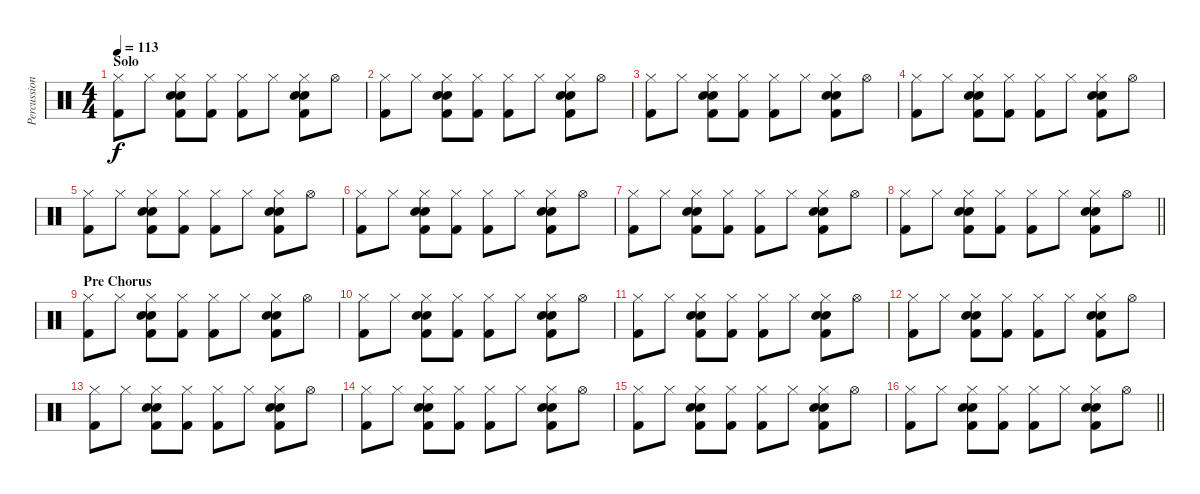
\track ("Percussion" "Percussion") {instrument percussion}
\staff {score}
\articulation defaults
\ts (4 4)
\section ("" "Solo")
\tempo 113
\clef neutral
\ks c
("Hi-Hat (closed)" "Kick (hit) 2").8{dy f} "Hi-Hat (closed)".8 ("Hand Clap (hit)" "Hi-Hat (closed)" "Electric Snare (hit)" "Kick (hit) 2").8 ("Hi-Hat (closed)" "Kick (hit) 2").8 ("Hi-Hat (closed)" "Kick (hit) 2").8 "Hi-Hat (closed)".8 ("Hand Clap (hit)" "Hi-Hat (closed)" "Electric Snare (hit)" "Kick (hit) 2").8 "Hi-Hat (open)".8 |
("Hi-Hat (closed)" "Kick (hit) 2").8 "Hi-Hat (closed)".8 ("Hand Clap (hit)" "Hi-Hat (closed)" "Electric Snare (hit)" "Kick (hit) 2").8 ("Hi-Hat (closed)" "Kick (hit) 2").8 ("Hi-Hat (closed)" "Kick (hit) 2").8 "Hi-Hat (closed)".8 ("Hand Clap (hit)" "Hi-Hat (closed)" "Electric Snare (hit)" "Kick (hit) 2").8 "Hi-Hat (open)".8 |
("Hi-Hat (closed)" "Kick (hit) 2").8 "Hi-Hat (closed)".8 ("Hand Clap (hit)" "Hi-Hat (closed)" "Electric Snare (hit)" "Kick (hit) 2").8 ("Hi-Hat (closed)" "Kick (hit) 2").8 ("Hi-Hat (closed)" "Kick (hit) 2").8 "Hi-Hat (closed)".8 ("Hand Clap (hit)" "Hi-Hat (closed)" "Electric Snare (hit)" "Kick (hit) 2").8 "Hi-Hat (open)".8 |
("Hi-Hat (closed)" "Kick (hit) 2").8 "Hi-Hat (closed)".8 ("Hand Clap (hit)" "Hi-Hat (closed)" "Electric Snare (hit)" "Kick (hit) 2").8 ("Hi-Hat (closed)" "Kick (hit) 2").8 ("Hi-Hat (closed)" "Kick (hit) 2").8 "Hi-Hat (closed)".8 ("Hand Clap (hit)" "Hi-Hat (closed)" "Electric Snare (hit)" "Kick (hit) 2").8 "Hi-Hat (open)".8 |
("Hi-Hat (closed)" "Kick (hit) 2").8 "Hi-Hat (closed)".8 ("Hand Clap (hit)" "Hi-Hat (closed)" "Electric Snare (hit)" "Kick (hit) 2").8 ("Hi-Hat (closed)" "Kick (hit) 2").8 ("Hi-Hat (closed)" "Kick (hit) 2").8 "Hi-Hat (closed)".8 ("Hand Clap (hit)" "Hi-Hat (closed)" "Electric Snare (hit)" "Kick (hit) 2").8 "Hi-Hat (open)".8 |
("Hi-Hat (closed)" "Kick (hit) 2").8 "Hi-Hat (closed)".8 ("Hand Clap (hit)" "Hi-Hat (closed)" "Electric Snare (hit)" "Kick (hit) 2").8 ("Hi-Hat (closed)" "Kick (hit) 2").8 ("Hi-Hat (closed)" "Kick (hit) 2").8 "Hi-Hat (closed)".8 ("Hand Clap (hit)" "Hi-Hat (closed)" "Electric Snare (hit)" "Kick (hit) 2").8 "Hi-Hat (open)".8 |
("Hi-Hat (closed)" "Kick (hit) 2").8 "Hi-Hat (closed)".8 ("Hand Clap (hit)" "Hi-Hat (closed)" "Electric Snare (hit)" "Kick (hit) 2").8 ("Hi-Hat (closed)" "Kick (hit) 2").8 ("Hi-Hat (closed)" "Kick (hit) 2").8 "Hi-Hat (closed)".8 ("Hand Clap (hit)" "Hi-Hat (closed)" "Electric Snare (hit)" "Kick (hit) 2").8 "Hi-Hat (open)".8 |
\barLineRight lightlight
("Hi-Hat (closed)" "Kick (hit) 2").8 "Hi-Hat (closed)".8 ("Hand Clap (hit)" "Hi-Hat (closed)" "Electric Snare (hit)" "Kick (hit) 2").8 ("Hi-Hat (closed)" "Kick (hit) 2").8 ("Hi-Hat (closed)" "Kick (hit) 2").8 "Hi-Hat (closed)".8 ("Hand Clap (hit)" "Hi-Hat (closed)" "Electric Snare (hit)" "Kick (hit) 2").8 "Hi-Hat (open)".8 |
\section ("" "Pre Chorus")
("Hi-Hat (closed)" "Kick (hit) 2").8 "Hi-Hat (closed)".8 ("Hand Clap (hit)" "Hi-Hat (closed)" "Electric Snare (hit)" "Kick (hit) 2").8 ("Hi-Hat (closed)" "Kick (hit) 2").8 ("Hi-Hat (closed)" "Kick (hit) 2").8 "Hi-Hat (closed)".8 ("Hand Clap (hit)" "Hi-Hat (closed)" "Electric Snare (hit)" "Kick (hit) 2").8 "Hi-Hat (open)".8 |
("Hi-Hat (closed)" "Kick (hit) 2").8 "Hi-Hat (closed)".8 ("Hand Clap (hit)" "Hi-Hat (closed)" "Electric Snare (hit)" "Kick (hit) 2").8 ("Hi-Hat (closed)" "Kick (hit) 2").8 ("Hi-Hat (closed)" "Kick (hit) 2").8 "Hi-Hat (closed)".8 ("Hand Clap (hit)" "Hi-Hat (closed)" "Electric Snare (hit)" "Kick (hit) 2").8 "Hi-Hat (open)".8 |
("Hi-Hat (closed)" "Kick (hit) 2").8 "Hi-Hat (closed)".8 ("Hand Clap (hit)" "Hi-Hat (closed)" "Electric Snare (hit)" "Kick (hit) 2").8 ("Hi-Hat (closed)" "Kick (hit) 2").8 ("Hi-Hat (closed)" "Kick (hit) 2").8 "Hi-Hat (closed)".8 ("Hand Clap (hit)" "Hi-Hat (closed)" "Electric Snare (hit)" "Kick (hit) 2").8 "Hi-Hat (open)".8 |
("Hi-Hat (closed)" "Kick (hit) 2").8 "Hi-Hat (closed)".8 ("Hand Clap (hit)" "Hi-Hat (closed)" "Electric Snare (hit)" "Kick (hit) 2").8 ("Hi-Hat (closed)" "Kick (hit) 2").8 ("Hi-Hat (closed)" "Kick (hit) 2").8 "Hi-Hat (closed)".8 ("Hand Clap (hit)" "Hi-Hat (closed)" "Electric Snare (hit)" "Kick (hit) 2").8 "Hi-Hat (open)".8 |
("Hi-Hat (closed)" "Kick (hit) 2").8 "Hi-Hat (closed)".8 ("Hand Clap (hit)" "Hi-Hat (closed)" "Electric Snare (hit)" "Kick (hit) 2").8 ("Hi-Hat (closed)" "Kick (hit) 2").8 ("Hi-Hat (closed)" "Kick (hit) 2").8 "Hi-Hat (closed)".8 ("Hand Clap (hit)" "Hi-Hat (closed)" "Electric Snare (hit)" "Kick (hit) 2").8 "Hi-Hat (open)".8 |
("Hi-Hat (closed)" "Kick (hit) 2").8 "Hi-Hat (closed)".8 ("Hand Clap (hit)" "Hi-Hat (closed)" "Electric Snare (hit)" "Kick (hit) 2").8 ("Hi-Hat (closed)" "Kick (hit) 2").8 ("Hi-Hat (closed)" "Kick (hit) 2").8 "Hi-Hat (closed)".8 ("Hand Clap (hit)" "Hi-Hat (closed)" "Electric Snare (hit)" "Kick (hit) 2").8 "Hi-Hat (open)".8 |
("Hi-Hat (closed)" "Kick (hit) 2").8 "Hi-Hat (closed)".8 ("Hand Clap (hit)" "Hi-Hat (closed)" "Electric Snare (hit)" "Kick (hit) 2").8 ("Hi-Hat (closed)" "Kick (hit) 2").8 ("Hi-Hat (closed)" "Kick (hit) 2").8 "Hi-Hat (closed)".8 ("Hand Clap (hit)" "Hi-Hat (closed)" "Electric Snare (hit)" "Kick (hit) 2").8 "Hi-Hat (open)".8 |
\barLineRight lightlight
("Hi-Hat (closed)" "Kick (hit) 2").8 "Hi-Hat (closed)".8 ("Hand Clap (hit)" "Hi-Hat (closed)" "Electric Snare (hit)" "Kick (hit) 2").8 ("Hi-Hat (closed)" "Kick (hit) 2").8 ("Hi-Hat (closed)" "Kick (hit) 2").8 "Hi-Hat (closed)".8 ("Hand Clap (hit)" "Hi-Hat (closed)" "Electric Snare (hit)" "Kick (hit) 2").8 "Hi-Hat (open)".8
